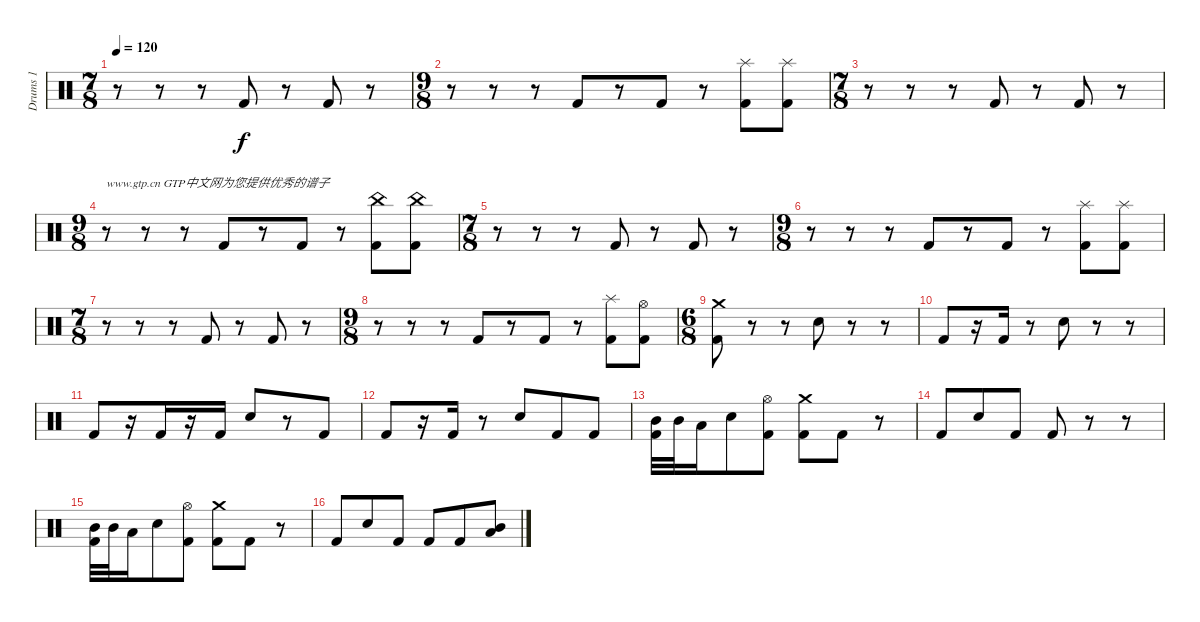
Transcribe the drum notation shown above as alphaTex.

\track ("Drums 1" "Drums 1") {instrument percussion}
\staff {score}
\articulation defaults
\ts (7 8)
\tempo 120
\clef neutral
\ks c
r.8{dy f} r.8 r.8 "Kick (hit) 2".8 r.8 "Kick (hit) 2".8 r.8 |
\ts (9 8)
r.8 r.8 r.8 "Kick (hit) 2".8 r.8 "Kick (hit) 2".8 r.8 ("Splash (hit)" "Kick (hit) 2").8 ("Splash (hit)" "Kick (hit) 2").8 |
\ts (7 8)
r.8 r.8 r.8 "Kick (hit) 2".8 r.8 "Kick (hit) 2".8 r.8 |
\ts (9 8)
r.8{txt "www.gtp.cn GTP中文网为您提供优秀的谱子"} r.8 r.8 "Kick (hit) 2".8 r.8 "Kick (hit) 2".8 r.8 ("China (hit)" "Kick (hit) 2").8 ("China (hit)" "Kick (hit) 2").8 |
\ts (7 8)
r.8 r.8 r.8 "Kick (hit) 2".8 r.8 "Kick (hit) 2".8 r.8 |
\ts (9 8)
r.8 r.8 r.8 "Kick (hit) 2".8 r.8 "Kick (hit) 2".8 r.8 ("Splash (hit)" "Kick (hit) 2").8 ("Splash (hit)" "Kick (hit) 2").8 |
\ts (7 8)
r.8 r.8 r.8 "Kick (hit) 2".8 r.8 "Kick (hit) 2".8 r.8 |
\ts (9 8)
r.8 r.8 r.8 "Kick (hit) 2".8 r.8 "Kick (hit) 2".8 r.8 ("Splash (hit)" "Kick (hit) 2").8 ("Hi-Hat (open)" "Kick (hit) 2").8 |
\ts (6 8)
("Crash medium (hit)" "Kick (hit) 2").8 r.8 r.8 "Snare (hit) 2".8 r.8 r.8 |
"Kick (hit) 2".8 r.16 "Kick (hit) 2".16 r.8 "Snare (hit) 2".8 r.8 r.8 |
"Kick (hit) 2".8 r.16 "Kick (hit) 2".16 r.16 "Kick (hit) 2".16 "Snare (hit) 2".8 r.8 "Kick (hit) 2".8 |
"Kick (hit) 2".8 r.16 "Kick (hit) 2".16 r.8 "Snare (hit) 2".8 "Kick (hit) 2".8 "Kick (hit) 2".8 |
("Mid Tom (hit)" "Kick (hit) 2").32 "Mid Tom (hit)".32 "Low Tom (hit)".16 "Snare (hit) 2".8 ("Hi-Hat (open)" "Kick (hit) 2").8 ("Crash medium (hit)" "Kick (hit) 2").8 "Kick (hit) 2".8 r.8 |
"Kick (hit) 2".8 "Snare (hit) 2".8 "Kick (hit) 2".8 "Kick (hit) 2".8 r.8 r.8 |
("Mid Tom (hit)" "Kick (hit) 2").32 "Mid Tom (hit)".32 "Low Tom (hit)".16 "Snare (hit) 2".8 ("Hi-Hat (open)" "Kick (hit) 2").8 ("Crash medium (hit)" "Kick (hit) 2").8 "Kick (hit) 2".8 r.8 |
"Kick (hit) 2".8 "Snare (hit) 2".8 "Kick (hit) 2".8 "Kick (hit) 2".8 "Kick (hit) 2".8 ("Mid Tom (hit)" "Low Tom (hit)").8
